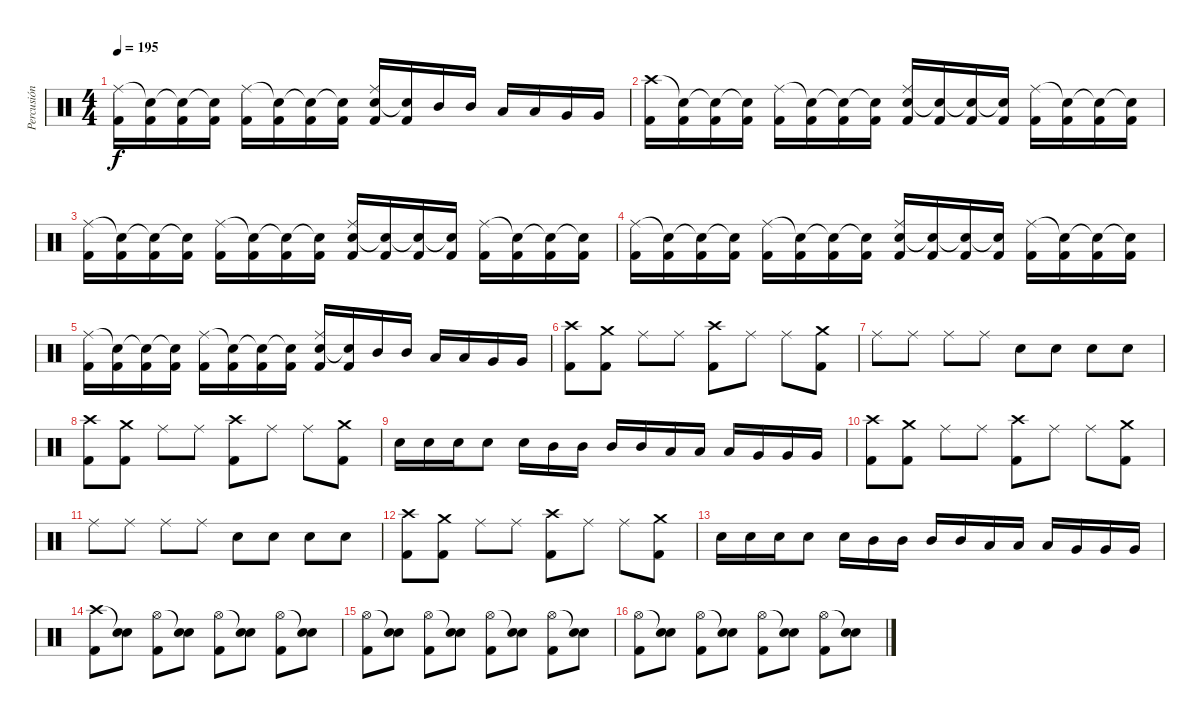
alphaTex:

\track ("Percusión" "Percusión") {instrument percussion}
\staff {score}
\articulation defaults
\ts (4 4)
\tempo 195
\clef neutral
\ks c
("Kick (hit) 2" "Ride (middle)").16{dy f} ("Kick (hit) 2" "Snare (hit)"{t}).16 ("Kick (hit) 2" "Snare (hit)"{t}).16 ("Kick (hit) 2" "Snare (hit)"{t}).16 ("Kick (hit) 2" "Ride (middle)").16 ("Kick (hit) 2" "Snare (hit)"{t}).16 ("Kick (hit) 2" "Snare (hit)"{t}).16 ("Kick (hit) 2" "Snare (hit)"{t}).16 ("Kick (hit) 2" "Snare (hit) 2" "Ride (middle)").16 ("Kick (hit) 2" "Snare (hit)"{t}).16 "Mid Tom (hit)".16 "Mid Tom (hit)".16 "Low Tom (hit)".16 "Low Tom (hit)".16 "Very Low Tom (hit)".16 "Very Low Tom (hit)".16 |
("Kick (hit) 2" "Crash high (hit)").16 ("Kick (hit) 2" "Snare (hit)"{t}).16 ("Kick (hit) 2" "Snare (hit)"{t}).16 ("Kick (hit) 2" "Snare (hit)"{t}).16 ("Kick (hit) 2" "Ride (middle)").16 ("Kick (hit) 2" "Snare (hit)"{t}).16 ("Kick (hit) 2" "Snare (hit)"{t}).16 ("Kick (hit) 2" "Snare (hit)"{t}).16 ("Kick (hit) 2" "Snare (hit) 2" "Ride (middle)").16 ("Kick (hit) 2" "Snare (hit)"{t}).16 ("Kick (hit) 2" "Snare (hit)"{t}).16 ("Kick (hit) 2" "Snare (hit)"{t}).16 ("Kick (hit) 2" "Ride (middle)").16 ("Kick (hit) 2" "Snare (hit)"{t}).16 ("Kick (hit) 2" "Snare (hit)"{t}).16 ("Kick (hit) 2" "Snare (hit)"{t}).16 |
("Kick (hit) 2" "Ride (middle)").16 ("Kick (hit) 2" "Snare (hit)"{t}).16 ("Kick (hit) 2" "Snare (hit)"{t}).16 ("Kick (hit) 2" "Snare (hit)"{t}).16 ("Kick (hit) 2" "Ride (middle)").16 ("Kick (hit) 2" "Snare (hit)"{t}).16 ("Kick (hit) 2" "Snare (hit)"{t}).16 ("Kick (hit) 2" "Snare (hit)"{t}).16 ("Kick (hit) 2" "Snare (hit) 2" "Ride (middle)").16 ("Kick (hit) 2" "Snare (hit)"{t}).16 ("Kick (hit) 2" "Snare (hit)"{t}).16 ("Kick (hit) 2" "Snare (hit)"{t}).16 ("Kick (hit) 2" "Ride (middle)").16 ("Kick (hit) 2" "Snare (hit)"{t}).16 ("Kick (hit) 2" "Snare (hit)"{t}).16 ("Kick (hit) 2" "Snare (hit)"{t}).16 |
("Kick (hit) 2" "Ride (middle)").16 ("Kick (hit) 2" "Snare (hit)"{t}).16 ("Kick (hit) 2" "Snare (hit)"{t}).16 ("Kick (hit) 2" "Snare (hit)"{t}).16 ("Kick (hit) 2" "Ride (middle)").16 ("Kick (hit) 2" "Snare (hit)"{t}).16 ("Kick (hit) 2" "Snare (hit)"{t}).16 ("Kick (hit) 2" "Snare (hit)"{t}).16 ("Kick (hit) 2" "Snare (hit) 2" "Ride (middle)").16 ("Kick (hit) 2" "Snare (hit)"{t}).16 ("Kick (hit) 2" "Snare (hit)"{t}).16 ("Kick (hit) 2" "Snare (hit)"{t}).16 ("Kick (hit) 2" "Ride (middle)").16 ("Kick (hit) 2" "Snare (hit)"{t}).16 ("Kick (hit) 2" "Snare (hit)"{t}).16 ("Kick (hit) 2" "Snare (hit)"{t}).16 |
("Kick (hit) 2" "Ride (middle)").16 ("Kick (hit) 2" "Snare (hit)"{t}).16 ("Kick (hit) 2" "Snare (hit)"{t}).16 ("Kick (hit) 2" "Snare (hit)"{t}).16 ("Kick (hit) 2" "Ride (middle)").16 ("Kick (hit) 2" "Snare (hit)"{t}).16 ("Kick (hit) 2" "Snare (hit)"{t}).16 ("Kick (hit) 2" "Snare (hit)"{t}).16 ("Kick (hit) 2" "Snare (hit) 2" "Ride (middle)").16 ("Kick (hit) 2" "Snare (hit)"{t}).16 "Mid Tom (hit)".16 "Mid Tom (hit)".16 "Low Tom (hit)".16 "Low Tom (hit)".16 "Very Low Tom (hit)".16 "Very Low Tom (hit)".16 |
("Kick (hit) 2" "Crash high (hit)").8 ("Kick (hit) 2" "Crash medium (hit)").8 "Ride (middle)".8 "Ride (middle)".8 ("Kick (hit) 2" "Crash high (hit)").8 "Ride (middle)".8 "Ride (middle)".8 ("Kick (hit) 2" "Crash medium (hit)").8 |
"Ride (middle)".8 "Ride (middle)".8 "Ride (middle)".8 "Ride (middle)".8 "Snare (hit) 2".8 "Snare (hit) 2".8 "Snare (hit) 2".8 "Snare (hit) 2".8 |
("Kick (hit) 2" "Crash high (hit)").8 ("Kick (hit) 2" "Crash medium (hit)").8 "Ride (middle)".8 "Ride (middle)".8 ("Kick (hit) 2" "Crash high (hit)").8 "Ride (middle)".8 "Ride (middle)".8 ("Kick (hit) 2" "Crash medium (hit)").8 |
"Snare (hit) 2".16 "Snare (hit) 2".16 "Snare (hit) 2".16 "Snare (hit) 2".8 "Snare (hit) 2".16 "Mid Tom (hit)".16 "Mid Tom (hit)".16 "Mid Tom (hit)".16 "Mid Tom (hit)".16 "Low Tom (hit)".16 "Low Tom (hit)".16 "Low Tom (hit)".16 "Very Low Tom (hit)".16 "Very Low Tom (hit)".16 "Very Low Tom (hit)".16 |
("Kick (hit) 2" "Crash high (hit)").8 ("Kick (hit) 2" "Crash medium (hit)").8 "Ride (middle)".8 "Ride (middle)".8 ("Kick (hit) 2" "Crash high (hit)").8 "Ride (middle)".8 "Ride (middle)".8 ("Kick (hit) 2" "Crash medium (hit)").8 |
"Ride (middle)".8 "Ride (middle)".8 "Ride (middle)".8 "Ride (middle)".8 "Snare (hit) 2".8 "Snare (hit) 2".8 "Snare (hit) 2".8 "Snare (hit) 2".8 |
("Kick (hit) 2" "Crash high (hit)").8 ("Kick (hit) 2" "Crash medium (hit)").8 "Ride (middle)".8 "Ride (middle)".8 ("Kick (hit) 2" "Crash high (hit)").8 "Ride (middle)".8 "Ride (middle)".8 ("Kick (hit) 2" "Crash medium (hit)").8 |
"Snare (hit) 2".16 "Snare (hit) 2".16 "Snare (hit) 2".16 "Snare (hit) 2".8 "Snare (hit) 2".16 "Mid Tom (hit)".16 "Mid Tom (hit)".16 "Mid Tom (hit)".16 "Mid Tom (hit)".16 "Low Tom (hit)".16 "Low Tom (hit)".16 "Low Tom (hit)".16 "Very Low Tom (hit)".16 "Very Low Tom (hit)".16 "Very Low Tom (hit)".16 |
("Kick (hit) 2" "Crash high (hit)").8 ("Snare (hit) 2" "Snare (hit)"{t}).8 ("Kick (hit) 2" "Hi-Hat (open)").8 ("Snare (hit) 2" "Snare (hit)"{t}).8 ("Kick (hit) 2" "Hi-Hat (open)").8 ("Snare (hit) 2" "Snare (hit)"{t}).8 ("Kick (hit) 2" "Hi-Hat (open)").8 ("Snare (hit) 2" "Snare (hit)"{t}).8 |
("Kick (hit) 2" "Hi-Hat (open)").8 ("Snare (hit) 2" "Snare (hit)"{t}).8 ("Kick (hit) 2" "Hi-Hat (open)").8 ("Snare (hit) 2" "Snare (hit)"{t}).8 ("Kick (hit) 2" "Hi-Hat (open)").8 ("Snare (hit) 2" "Snare (hit)"{t}).8 ("Kick (hit) 2" "Hi-Hat (open)").8 ("Snare (hit) 2" "Snare (hit)"{t}).8 |
("Kick (hit) 2" "Hi-Hat (open)").8 ("Snare (hit) 2" "Snare (hit)"{t}).8 ("Kick (hit) 2" "Hi-Hat (open)").8 ("Snare (hit) 2" "Snare (hit)"{t}).8 ("Kick (hit) 2" "Hi-Hat (open)").8 ("Snare (hit) 2" "Snare (hit)"{t}).8 ("Kick (hit) 2" "Hi-Hat (open)").8 ("Snare (hit) 2" "Snare (hit)"{t}).8
